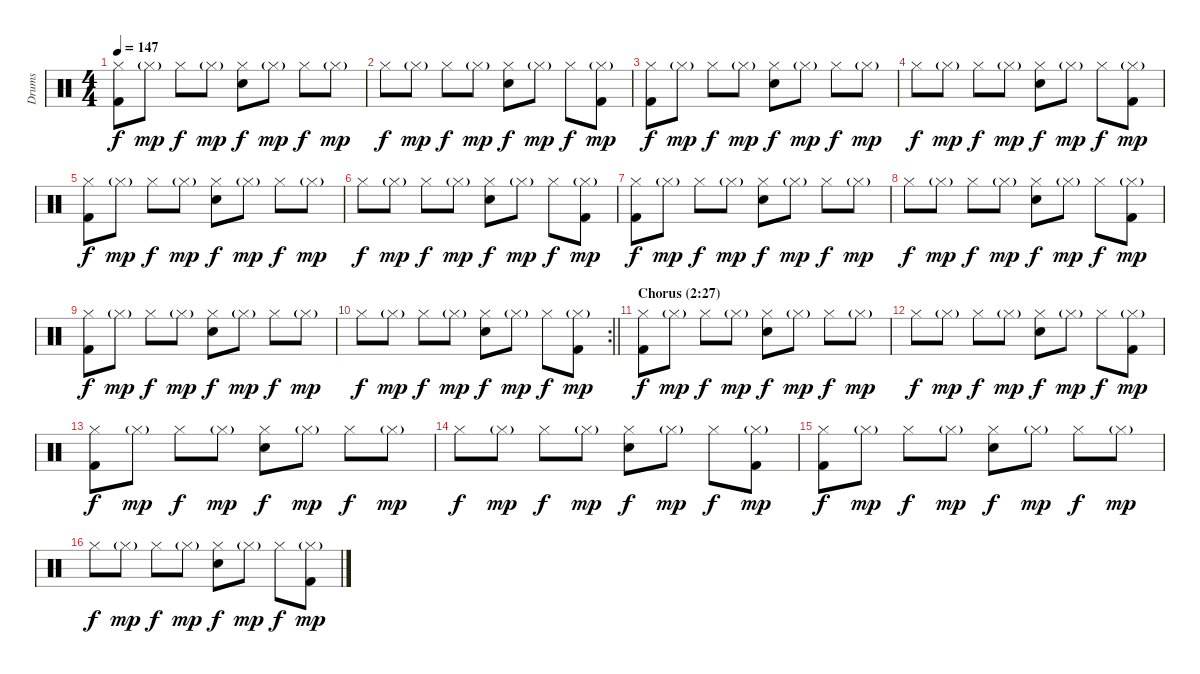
\track ("Drums" "Drums") {instrument percussion}
\staff {score}
\articulation defaults
\ts (4 4)
\tempo 147
\clef neutral
\ks c
("Hi-Hat (closed)" "Kick (hit) 2").8{dy f} "Hi-Hat (closed)"{g}.8{dy mp} "Hi-Hat (closed)".8{dy f} "Hi-Hat (closed)"{g}.8{dy mp} ("Hi-Hat (closed)" "Snare (hit) 2").8{dy f} "Hi-Hat (closed)"{g}.8{dy mp} "Hi-Hat (closed)".8{dy f} "Hi-Hat (closed)"{g}.8{dy mp} |
"Hi-Hat (closed)".8{dy f} "Hi-Hat (closed)"{g}.8{dy mp} "Hi-Hat (closed)".8{dy f} "Hi-Hat (closed)"{g}.8{dy mp} ("Hi-Hat (closed)" "Snare (hit) 2").8{dy f} "Hi-Hat (closed)"{g}.8{dy mp} "Hi-Hat (closed)".8{dy f} ("Hi-Hat (closed)"{g} "Kick (hit) 2").8{dy mp} |
("Hi-Hat (closed)" "Kick (hit) 2").8{dy f} "Hi-Hat (closed)"{g}.8{dy mp} "Hi-Hat (closed)".8{dy f} "Hi-Hat (closed)"{g}.8{dy mp} ("Hi-Hat (closed)" "Snare (hit) 2").8{dy f} "Hi-Hat (closed)"{g}.8{dy mp} "Hi-Hat (closed)".8{dy f} "Hi-Hat (closed)"{g}.8{dy mp} |
"Hi-Hat (closed)".8{dy f} "Hi-Hat (closed)"{g}.8{dy mp} "Hi-Hat (closed)".8{dy f} "Hi-Hat (closed)"{g}.8{dy mp} ("Hi-Hat (closed)" "Snare (hit) 2").8{dy f} "Hi-Hat (closed)"{g}.8{dy mp} "Hi-Hat (closed)".8{dy f} ("Hi-Hat (closed)"{g} "Kick (hit) 2").8{dy mp} |
("Hi-Hat (closed)" "Kick (hit) 2").8{dy f} "Hi-Hat (closed)"{g}.8{dy mp} "Hi-Hat (closed)".8{dy f} "Hi-Hat (closed)"{g}.8{dy mp} ("Hi-Hat (closed)" "Snare (hit) 2").8{dy f} "Hi-Hat (closed)"{g}.8{dy mp} "Hi-Hat (closed)".8{dy f} "Hi-Hat (closed)"{g}.8{dy mp} |
"Hi-Hat (closed)".8{dy f} "Hi-Hat (closed)"{g}.8{dy mp} "Hi-Hat (closed)".8{dy f} "Hi-Hat (closed)"{g}.8{dy mp} ("Hi-Hat (closed)" "Snare (hit) 2").8{dy f} "Hi-Hat (closed)"{g}.8{dy mp} "Hi-Hat (closed)".8{dy f} ("Hi-Hat (closed)"{g} "Kick (hit) 2").8{dy mp} |
("Hi-Hat (closed)" "Kick (hit) 2").8{dy f} "Hi-Hat (closed)"{g}.8{dy mp} "Hi-Hat (closed)".8{dy f} "Hi-Hat (closed)"{g}.8{dy mp} ("Hi-Hat (closed)" "Snare (hit) 2").8{dy f} "Hi-Hat (closed)"{g}.8{dy mp} "Hi-Hat (closed)".8{dy f} "Hi-Hat (closed)"{g}.8{dy mp} |
"Hi-Hat (closed)".8{dy f} "Hi-Hat (closed)"{g}.8{dy mp} "Hi-Hat (closed)".8{dy f} "Hi-Hat (closed)"{g}.8{dy mp} ("Hi-Hat (closed)" "Snare (hit) 2").8{dy f} "Hi-Hat (closed)"{g}.8{dy mp} "Hi-Hat (closed)".8{dy f} ("Hi-Hat (closed)"{g} "Kick (hit) 2").8{dy mp} |
("Hi-Hat (closed)" "Kick (hit) 2").8{dy f} "Hi-Hat (closed)"{g}.8{dy mp} "Hi-Hat (closed)".8{dy f} "Hi-Hat (closed)"{g}.8{dy mp} ("Hi-Hat (closed)" "Snare (hit) 2").8{dy f} "Hi-Hat (closed)"{g}.8{dy mp} "Hi-Hat (closed)".8{dy f} "Hi-Hat (closed)"{g}.8{dy mp} |
\rc 2
\barLineRight lightlight "Hi-Hat (closed)".8{dy f} "Hi-Hat (closed)"{g}.8{dy mp} "Hi-Hat (closed)".8{dy f} "Hi-Hat (closed)"{g}.8{dy mp}
("Hi-Hat (closed)" "Snare (hit) 2").8{dy f} "Hi-Hat (closed)"{g}.8{dy mp} "Hi-Hat (closed)".8{dy f} ("Hi-Hat (closed)"{g} "Kick (hit) 2").8{dy mp} |
\section ("" "Chorus (2:27)")
("Hi-Hat (closed)" "Kick (hit) 2").8{dy f} "Hi-Hat (closed)"{g}.8{dy mp} "Hi-Hat (closed)".8{dy f} "Hi-Hat (closed)"{g}.8{dy mp} ("Hi-Hat (closed)" "Snare (hit) 2").8{dy f} "Hi-Hat (closed)"{g}.8{dy mp} "Hi-Hat (closed)".8{dy f} "Hi-Hat (closed)"{g}.8{dy mp} |
"Hi-Hat (closed)".8{dy f} "Hi-Hat (closed)"{g}.8{dy mp} "Hi-Hat (closed)".8{dy f} "Hi-Hat (closed)"{g}.8{dy mp} ("Hi-Hat (closed)" "Snare (hit) 2").8{dy f} "Hi-Hat (closed)"{g}.8{dy mp} "Hi-Hat (closed)".8{dy f} ("Hi-Hat (closed)"{g} "Kick (hit) 2").8{dy mp} |
("Hi-Hat (closed)" "Kick (hit) 2").8{dy f} "Hi-Hat (closed)"{g}.8{dy mp} "Hi-Hat (closed)".8{dy f} "Hi-Hat (closed)"{g}.8{dy mp} ("Hi-Hat (closed)" "Snare (hit) 2").8{dy f} "Hi-Hat (closed)"{g}.8{dy mp} "Hi-Hat (closed)".8{dy f} "Hi-Hat (closed)"{g}.8{dy mp} |
"Hi-Hat (closed)".8{dy f} "Hi-Hat (closed)"{g}.8{dy mp} "Hi-Hat (closed)".8{dy f} "Hi-Hat (closed)"{g}.8{dy mp} ("Hi-Hat (closed)" "Snare (hit) 2").8{dy f} "Hi-Hat (closed)"{g}.8{dy mp} "Hi-Hat (closed)".8{dy f} ("Hi-Hat (closed)"{g} "Kick (hit) 2").8{dy mp} |
("Hi-Hat (closed)" "Kick (hit) 2").8{dy f} "Hi-Hat (closed)"{g}.8{dy mp} "Hi-Hat (closed)".8{dy f} "Hi-Hat (closed)"{g}.8{dy mp} ("Hi-Hat (closed)" "Snare (hit) 2").8{dy f} "Hi-Hat (closed)"{g}.8{dy mp} "Hi-Hat (closed)".8{dy f} "Hi-Hat (closed)"{g}.8{dy mp} |
"Hi-Hat (closed)".8{dy f} "Hi-Hat (closed)"{g}.8{dy mp} "Hi-Hat (closed)".8{dy f} "Hi-Hat (closed)"{g}.8{dy mp} ("Hi-Hat (closed)" "Snare (hit) 2").8{dy f} "Hi-Hat (closed)"{g}.8{dy mp} "Hi-Hat (closed)".8{dy f} ("Hi-Hat (closed)"{g} "Kick (hit) 2").8{dy mp}
